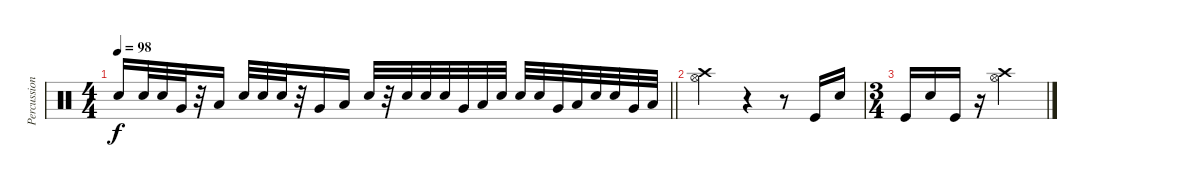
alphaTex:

\track ("Percussion" "Percussion") {instrument percussion}
\staff {score}
\articulation defaults
\ts (4 4)
\tempo 98
\clef neutral
\barLineRight lightlight
\ks c "Snare (hit) 2".16{dy f} "Snare (hit) 2".32 "Snare (hit) 2".32 "Very Low Tom (hit)".32
r.32 "Low Floor Tom (hit)".16 "Snare (hit) 2".32 "Snare (hit) 2".32 "Snare (hit) 2".32 r.32 "Very Low Tom (hit)".16 "Low Floor Tom (hit)".16 "Snare (hit) 2".32 r.32 "Snare (hit) 2".32 "Snare (hit) 2".32 "Snare (hit) 2".32 "Very Low Tom (hit)".32 "Low Floor Tom (hit)".32 "Snare (hit) 2".32 "Snare (hit) 2".32 "Snare (hit) 2".32 "Very Low Tom (hit)".32 "Low Floor Tom (hit)".32 "Snare (hit) 2".32 "Snare (hit) 2".32 "Very Low Tom (hit)".32 "Low Floor Tom (hit)".32 |
("Crash high (hit)" "Hi-Hat (open)").2 r.4 r.8 "Kick (hit)".16 "Snare (hit) 2".16 |
\ts (3 4)
"Kick (hit)".16 "Snare (hit) 2".16 "Kick (hit)".16 r.16 ("Crash high (hit)" "Hi-Hat (open)").2
